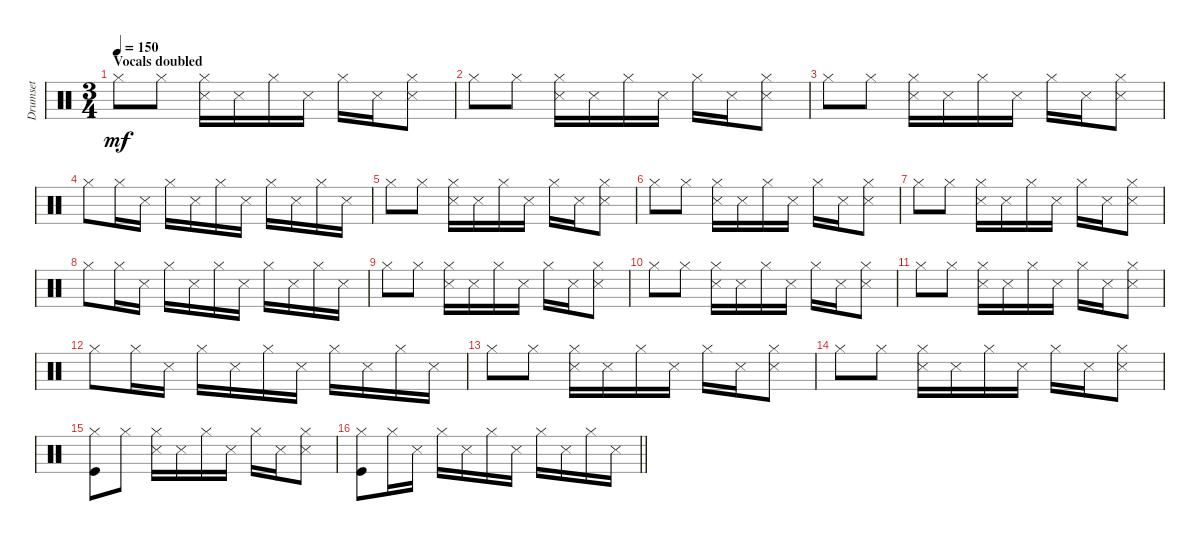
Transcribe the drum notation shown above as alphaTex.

\track ("Drumset" "Drumset") {instrument percussion}
\staff {score}
\articulation defaults
\ts (3 4)
\section ("" "Vocals doubled")
\tempo 150
\clef neutral
\ks c "Hi-Hat (closed)".8{dy mf} "Hi-Hat (closed)".8
("Hi-Hat (closed)" "Snare (side stick) 3").16 "Snare (side stick) 3".16 "Hi-Hat (closed)".16 "Snare (side stick) 3".16 "Hi-Hat (closed)".16 "Snare (side stick) 3".16 ("Hi-Hat (closed)" "Snare (side stick) 3").8 |
"Hi-Hat (closed)".8 "Hi-Hat (closed)".8 ("Hi-Hat (closed)" "Snare (side stick) 3").16 "Snare (side stick) 3".16 "Hi-Hat (closed)".16 "Snare (side stick) 3".16 "Hi-Hat (closed)".16 "Snare (side stick) 3".16 ("Hi-Hat (closed)" "Snare (side stick) 3").8 |
"Hi-Hat (closed)".8 "Hi-Hat (closed)".8 ("Hi-Hat (closed)" "Snare (side stick) 3").16 "Snare (side stick) 3".16 "Hi-Hat (closed)".16 "Snare (side stick) 3".16 "Hi-Hat (closed)".16 "Snare (side stick) 3".16 ("Hi-Hat (closed)" "Snare (side stick) 3").8 |
"Hi-Hat (closed)".8 "Hi-Hat (closed)".16 "Snare (side stick) 3".16 "Hi-Hat (closed)".16 "Snare (side stick) 3".16 "Hi-Hat (closed)".16 "Snare (side stick) 3".16 "Hi-Hat (closed)".16 "Snare (side stick) 3".16 "Hi-Hat (closed)".16 "Snare (side stick) 3".16 |
"Hi-Hat (closed)".8 "Hi-Hat (closed)".8 ("Hi-Hat (closed)" "Snare (side stick) 3").16 "Snare (side stick) 3".16 "Hi-Hat (closed)".16 "Snare (side stick) 3".16 "Hi-Hat (closed)".16 "Snare (side stick) 3".16 ("Hi-Hat (closed)" "Snare (side stick) 3").8 |
"Hi-Hat (closed)".8 "Hi-Hat (closed)".8 ("Hi-Hat (closed)" "Snare (side stick) 3").16 "Snare (side stick) 3".16 "Hi-Hat (closed)".16 "Snare (side stick) 3".16 "Hi-Hat (closed)".16 "Snare (side stick) 3".16 ("Hi-Hat (closed)" "Snare (side stick) 3").8 |
"Hi-Hat (closed)".8 "Hi-Hat (closed)".8 ("Hi-Hat (closed)" "Snare (side stick) 3").16 "Snare (side stick) 3".16 "Hi-Hat (closed)".16 "Snare (side stick) 3".16 "Hi-Hat (closed)".16 "Snare (side stick) 3".16 ("Hi-Hat (closed)" "Snare (side stick) 3").8 |
"Hi-Hat (closed)".8 "Hi-Hat (closed)".16 "Snare (side stick) 3".16 "Hi-Hat (closed)".16 "Snare (side stick) 3".16 "Hi-Hat (closed)".16 "Snare (side stick) 3".16 "Hi-Hat (closed)".16 "Snare (side stick) 3".16 "Hi-Hat (closed)".16 "Snare (side stick) 3".16 |
"Hi-Hat (closed)".8 "Hi-Hat (closed)".8 ("Hi-Hat (closed)" "Snare (side stick) 3").16 "Snare (side stick) 3".16 "Hi-Hat (closed)".16 "Snare (side stick) 3".16 "Hi-Hat (closed)".16 "Snare (side stick) 3".16 ("Hi-Hat (closed)" "Snare (side stick) 3").8 |
"Hi-Hat (closed)".8 "Hi-Hat (closed)".8 ("Hi-Hat (closed)" "Snare (side stick) 3").16 "Snare (side stick) 3".16 "Hi-Hat (closed)".16 "Snare (side stick) 3".16 "Hi-Hat (closed)".16 "Snare (side stick) 3".16 ("Hi-Hat (closed)" "Snare (side stick) 3").8 |
"Hi-Hat (closed)".8 "Hi-Hat (closed)".8 ("Hi-Hat (closed)" "Snare (side stick) 3").16 "Snare (side stick) 3".16 "Hi-Hat (closed)".16 "Snare (side stick) 3".16 "Hi-Hat (closed)".16 "Snare (side stick) 3".16 ("Hi-Hat (closed)" "Snare (side stick) 3").8 |
"Hi-Hat (closed)".8 "Hi-Hat (closed)".16 "Snare (side stick) 3".16 "Hi-Hat (closed)".16 "Snare (side stick) 3".16 "Hi-Hat (closed)".16 "Snare (side stick) 3".16 "Hi-Hat (closed)".16 "Snare (side stick) 3".16 "Hi-Hat (closed)".16 "Snare (side stick) 3".16 |
"Hi-Hat (closed)".8 "Hi-Hat (closed)".8 ("Hi-Hat (closed)" "Snare (side stick) 3").16 "Snare (side stick) 3".16 "Hi-Hat (closed)".16 "Snare (side stick) 3".16 "Hi-Hat (closed)".16 "Snare (side stick) 3".16 ("Hi-Hat (closed)" "Snare (side stick) 3").8 |
"Hi-Hat (closed)".8 "Hi-Hat (closed)".8 ("Hi-Hat (closed)" "Snare (side stick) 3").16 "Snare (side stick) 3".16 "Hi-Hat (closed)".16 "Snare (side stick) 3".16 "Hi-Hat (closed)".16 "Snare (side stick) 3".16 ("Hi-Hat (closed)" "Snare (side stick) 3").8 |
("Hi-Hat (closed)" "Kick (hit)").8 "Hi-Hat (closed)".8 ("Hi-Hat (closed)" "Snare (side stick) 3").16 "Snare (side stick) 3".16 "Hi-Hat (closed)".16 "Snare (side stick) 3".16 "Hi-Hat (closed)".16 "Snare (side stick) 3".16 ("Hi-Hat (closed)" "Snare (side stick) 3").8 |
\barLineRight lightlight
("Hi-Hat (closed)" "Kick (hit)").8 "Hi-Hat (closed)".16 "Snare (side stick) 3".16 "Hi-Hat (closed)".16 "Snare (side stick) 3".16 "Hi-Hat (closed)".16 "Snare (side stick) 3".16 "Hi-Hat (closed)".16 "Snare (side stick) 3".16 "Hi-Hat (closed)".16 "Snare (side stick) 3".16
